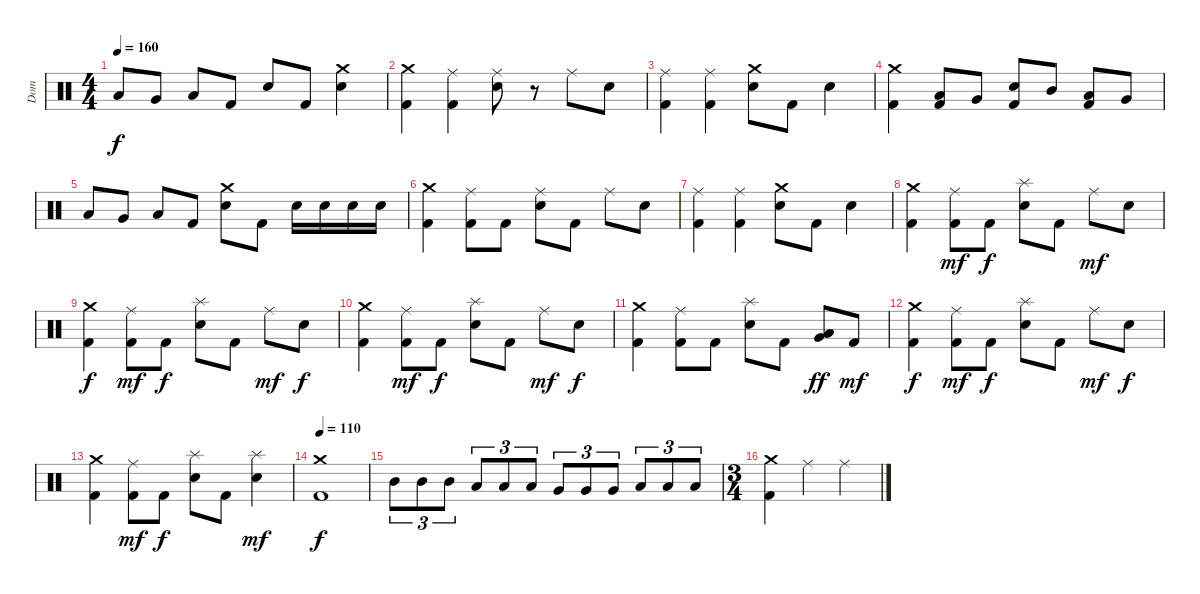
\track ("Dom" "Dom") {instrument percussion}
\staff {score}
\articulation defaults
\ts (4 4)
\tempo 160
\clef neutral
\ks c "Low Tom (hit)".8{dy f} "Very Low Tom (hit)".8 "Low Floor Tom (hit)".8 "Kick (hit) 2".8 "Snare (hit) 2".8 "Kick (hit) 2".8
("Crash medium (hit)" "Snare (hit) 2").4 |
("Crash medium (hit)" "Kick (hit) 2").4 ("Ride (middle)" "Kick (hit) 2").4 ("Ride (middle)" "Snare (hit) 2").8 r.8 "Ride (middle)".8 "Snare (hit) 2".8 |
("Ride (middle)" "Kick (hit) 2").4 ("Ride (middle)" "Kick (hit) 2").4 ("Crash medium (hit)" "Snare (hit) 2").8 "Kick (hit) 2".8 "Snare (hit) 2".4 |
("Crash medium (hit)" "Kick (hit) 2").4 ("Low Tom (hit)" "Kick (hit) 2").8 "Very Low Tom (hit)".8 ("Snare (hit) 2" "Kick (hit) 2").8 "Mid Tom (hit)".8 ("Low Tom (hit)" "Kick (hit) 2").8 "Very Low Tom (hit)".8 |
"Low Tom (hit)".8 "Very Low Tom (hit)".8 "Low Floor Tom (hit)".8 "Kick (hit) 2".8 ("Crash medium (hit)" "Snare (hit) 2").8 "Kick (hit) 2".8 "Snare (hit) 2".16 "Snare (hit) 2".16 "Snare (hit) 2".16 "Snare (hit) 2".16 |
("Crash medium (hit)" "Kick (hit) 2").4 ("Ride (middle)" "Kick (hit) 2").8 "Kick (hit) 2".8 ("Ride (middle)" "Snare (hit) 2").8 "Kick (hit) 2".8 "Ride (middle)".8 "Snare (hit) 2".8 |
("Ride (middle)" "Kick (hit) 2").4 ("Ride (middle)" "Kick (hit) 2").4 ("Crash medium (hit)" "Snare (hit) 2").8 "Kick (hit) 2".8 "Snare (hit) 2".4 |
("Crash medium (hit)" "Kick (hit) 2").4 ("Ride (middle)" "Kick (hit) 2").8{dy mf} "Kick (hit) 2".8{dy f} ("Splash (hit)" "Snare (hit) 2").8 "Kick (hit) 2".8 "Ride (middle)".8{dy mf} "Snare (hit) 2".8 |
("Crash medium (hit)" "Kick (hit) 2").4{dy f} ("Ride (middle)" "Kick (hit) 2").8{dy mf} "Kick (hit) 2".8{dy f} ("Splash (hit)" "Snare (hit) 2").8 "Kick (hit) 2".8 "Ride (middle)".8{dy mf} "Snare (hit) 2".8{dy f} |
("Crash medium (hit)" "Kick (hit) 2").4 ("Ride (middle)" "Kick (hit) 2").8{dy mf} "Kick (hit) 2".8{dy f} ("Splash (hit)" "Snare (hit) 2").8 "Kick (hit) 2".8 "Ride (middle)".8{dy mf} "Snare (hit) 2".8{dy f} |
("Crash medium (hit)" "Kick (hit) 2").4 ("Ride (middle)" "Kick (hit) 2").8 "Kick (hit) 2".8 ("Splash (hit)" "Snare (hit) 2").8 "Kick (hit) 2".8 ("Very Low Tom (hit)" "Low Tom (hit)").8{dy ff} "Kick (hit) 2".8{dy mf} |
("Crash medium (hit)" "Kick (hit) 2").4{dy f} ("Ride (middle)" "Kick (hit) 2").8{dy mf} "Kick (hit) 2".8{dy f} ("Splash (hit)" "Snare (hit) 2").8 "Kick (hit) 2".8 "Ride (middle)".8{dy mf} "Snare (hit) 2".8{dy f} |
("Crash medium (hit)" "Kick (hit) 2").4 ("Ride (middle)" "Kick (hit) 2").8{dy mf} "Kick (hit) 2".8{dy f} ("Splash (hit)" "Snare (hit) 2").8 "Kick (hit) 2".8 ("Splash (hit)" "Snare (hit) 2").4{dy mf} |
\tempo 110
("Crash medium (hit)" "Kick (hit) 2").1{dy f} |
"Mid Tom (hit)".8{tu (3 2)} "Mid Tom (hit)".8{tu (3 2)} "Mid Tom (hit)".8{tu (3 2)} "Low Tom (hit)".8{tu (3 2)} "Low Tom (hit)".8{tu (3 2)} "Low Tom (hit)".8{tu (3 2)} "Very Low Tom (hit)".8{tu (3 2)} "Very Low Tom (hit)".8{tu (3 2)} "Very Low Tom (hit)".8{tu (3 2)} "Low Floor Tom (hit)".8{tu (3 2)} "Low Floor Tom (hit)".8{tu (3 2)} "Low Floor Tom (hit)".8{tu (3 2)} |
\ts (3 4)
("Crash medium (hit)" "Kick (hit) 2").4 "Ride (middle)".4 "Ride (middle)".4
